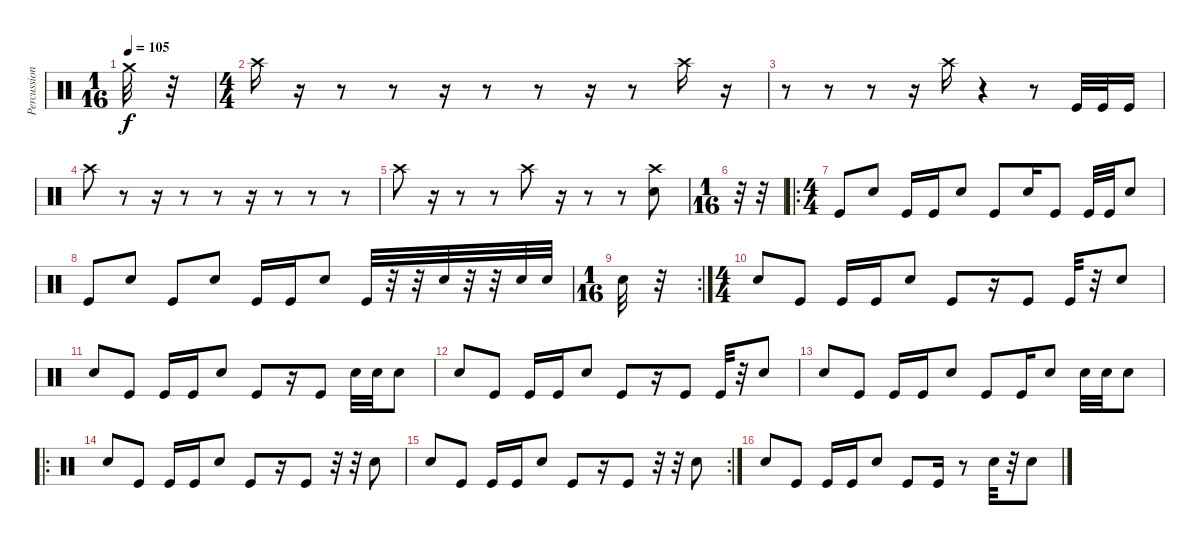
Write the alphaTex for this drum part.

\track ("Percussion" "Percussion") {instrument percussion}
\staff {score}
\articulation defaults
\ts (1 16)
\tempo 105
\clef neutral
\ks c "Crash medium (hit)".32{dy f}
r.32 |
\ts (4 4)
"Crash high (hit)".16 r.16 r.8 r.8 r.16 r.8 r.8 r.16 r.8 "Crash high (hit)".16 r.16 |
r.8 r.8 r.8 r.16 "Crash high (hit)".16 r.4 r.8 "Kick (hit)".32 "Kick (hit)".32 "Kick (hit)".16 |
"Crash high (hit)".8 r.8 r.16 r.8 r.8 r.16 r.8 r.8 r.8 |
"Crash high (hit)".8 r.16 r.8 r.8 "Crash high (hit)".8 r.16 r.8 r.8 ("Crash high (hit)" "Electric Snare (hit)").8 |
\ts (1 16)
r.32 r.32 |
\ro
\ts (4 4)
"Kick (hit)".8 "Electric Snare (hit)".8 "Kick (hit)".16 "Kick (hit)".16 "Electric Snare (hit)".8 "Kick (hit)".8 "Electric Snare (hit)".16 "Kick (hit)".8 "Kick (hit)".32 "Kick (hit)".32 "Electric Snare (hit)".8 |
"Kick (hit)".8 "Electric Snare (hit)".8 "Kick (hit)".8 "Electric Snare (hit)".8 "Kick (hit)".16 "Kick (hit)".16 "Electric Snare (hit)".8 "Kick (hit)".32 r.32 r.32 "Electric Snare (hit)".32 r.32 r.32 "Electric Snare (hit)".32 "Electric Snare (hit)".32 |
\rc 2
\ts (1 16)
"Electric Snare (hit)".32 r.32 |
\ts (4 4)
"Electric Snare (hit)".8 "Kick (hit)".8 "Kick (hit)".16 "Kick (hit)".16 "Electric Snare (hit)".8 "Kick (hit)".8 r.16 "Kick (hit)".8 "Kick (hit)".32 r.32 "Electric Snare (hit)".8 |
"Electric Snare (hit)".8 "Kick (hit)".8 "Kick (hit)".16 "Kick (hit)".16 "Electric Snare (hit)".8 "Kick (hit)".8 r.16 "Kick (hit)".8 "Electric Snare (hit)".32 "Electric Snare (hit)".32 "Electric Snare (hit)".8 |
"Electric Snare (hit)".8 "Kick (hit)".8 "Kick (hit)".16 "Kick (hit)".16 "Electric Snare (hit)".8 "Kick (hit)".8 r.16 "Kick (hit)".8 "Kick (hit)".32 r.32 "Electric Snare (hit)".8 |
"Electric Snare (hit)".8 "Kick (hit)".8 "Kick (hit)".16 "Kick (hit)".16 "Electric Snare (hit)".8 "Kick (hit)".8 "Kick (hit)".16 "Electric Snare (hit)".8 "Electric Snare (hit)".32 "Electric Snare (hit)".32 "Electric Snare (hit)".8 |
\ro "Electric Snare (hit)".8 "Kick (hit)".8 "Kick (hit)".16 "Kick (hit)".16 "Electric Snare (hit)".8 "Kick (hit)".8
r.16 "Kick (hit)".8 r.32 r.32 "Electric Snare (hit)".8 |
\rc 2 "Electric Snare (hit)".8 "Kick (hit)".8 "Kick (hit)".16 "Kick (hit)".16 "Electric Snare (hit)".8 "Kick (hit)".8
r.16 "Kick (hit)".8 r.32 r.32 "Electric Snare (hit)".8 |
"Electric Snare (hit)".8 "Kick (hit)".8 "Kick (hit)".16 "Kick (hit)".16 "Electric Snare (hit)".8 "Kick (hit)".8 "Kick (hit)".16 r.8 "Electric Snare (hit)".32 r.32 "Electric Snare (hit)".8
